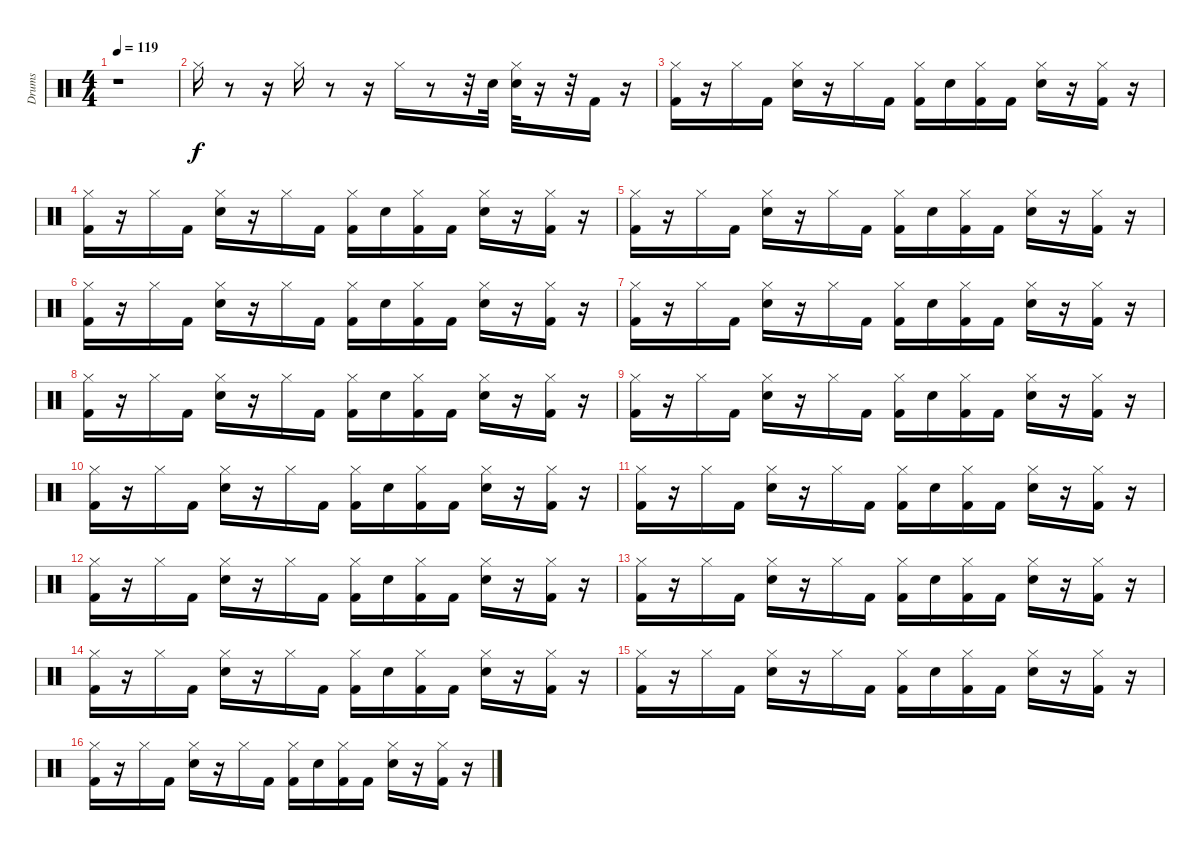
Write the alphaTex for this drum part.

\track ("Drums" "Drums") {instrument percussion}
\staff {score}
\articulation defaults
\ts (4 4)
\tempo 119
\clef neutral
\ks c
r.1{dy f} |
"Hi-Hat (closed)".16 r.8 r.16 "Hi-Hat (closed)".16 r.8 r.16 "Hi-Hat (closed)".16 r.8 r.32 "Snare (hit) 2".32 ("Snare (hit) 2" "Hi-Hat (closed)").32 r.16 r.32 "Kick (hit) 2".16 r.16 |
("Kick (hit) 2" "Hi-Hat (closed)").16 r.16 "Hi-Hat (closed)".16 "Kick (hit) 2".16 ("Snare (hit) 2" "Hi-Hat (closed)").16 r.16 "Hi-Hat (closed)".16 "Kick (hit) 2".16 ("Kick (hit) 2" "Hi-Hat (closed)").16 "Snare (hit) 2".16 ("Kick (hit) 2" "Hi-Hat (closed)").16 "Kick (hit) 2".16 ("Snare (hit) 2" "Hi-Hat (closed)").16 r.16 ("Kick (hit) 2" "Hi-Hat (closed)").16 r.16 |
("Kick (hit) 2" "Hi-Hat (closed)").16 r.16 "Hi-Hat (closed)".16 "Kick (hit) 2".16 ("Snare (hit) 2" "Hi-Hat (closed)").16 r.16 "Hi-Hat (closed)".16 "Kick (hit) 2".16 ("Kick (hit) 2" "Hi-Hat (closed)").16 "Snare (hit) 2".16 ("Kick (hit) 2" "Hi-Hat (closed)").16 "Kick (hit) 2".16 ("Snare (hit) 2" "Hi-Hat (closed)").16 r.16 ("Kick (hit) 2" "Hi-Hat (closed)").16 r.16 |
("Kick (hit) 2" "Hi-Hat (closed)").16 r.16 "Hi-Hat (closed)".16 "Kick (hit) 2".16 ("Snare (hit) 2" "Hi-Hat (closed)").16 r.16 "Hi-Hat (closed)".16 "Kick (hit) 2".16 ("Kick (hit) 2" "Hi-Hat (closed)").16 "Snare (hit) 2".16 ("Kick (hit) 2" "Hi-Hat (closed)").16 "Kick (hit) 2".16 ("Snare (hit) 2" "Hi-Hat (closed)").16 r.16 ("Kick (hit) 2" "Hi-Hat (closed)").16 r.16 |
("Kick (hit) 2" "Hi-Hat (closed)").16 r.16 "Hi-Hat (closed)".16 "Kick (hit) 2".16 ("Snare (hit) 2" "Hi-Hat (closed)").16 r.16 "Hi-Hat (closed)".16 "Kick (hit) 2".16 ("Kick (hit) 2" "Hi-Hat (closed)").16 "Snare (hit) 2".16 ("Kick (hit) 2" "Hi-Hat (closed)").16 "Kick (hit) 2".16 ("Snare (hit) 2" "Hi-Hat (closed)").16 r.16 ("Kick (hit) 2" "Hi-Hat (closed)").16 r.16 |
("Kick (hit) 2" "Hi-Hat (closed)").16 r.16 "Hi-Hat (closed)".16 "Kick (hit) 2".16 ("Snare (hit) 2" "Hi-Hat (closed)").16 r.16 "Hi-Hat (closed)".16 "Kick (hit) 2".16 ("Kick (hit) 2" "Hi-Hat (closed)").16 "Snare (hit) 2".16 ("Kick (hit) 2" "Hi-Hat (closed)").16 "Kick (hit) 2".16 ("Snare (hit) 2" "Hi-Hat (closed)").16 r.16 ("Kick (hit) 2" "Hi-Hat (closed)").16 r.16 |
("Kick (hit) 2" "Hi-Hat (closed)").16 r.16 "Hi-Hat (closed)".16 "Kick (hit) 2".16 ("Snare (hit) 2" "Hi-Hat (closed)").16 r.16 "Hi-Hat (closed)".16 "Kick (hit) 2".16 ("Kick (hit) 2" "Hi-Hat (closed)").16 "Snare (hit) 2".16 ("Kick (hit) 2" "Hi-Hat (closed)").16 "Kick (hit) 2".16 ("Snare (hit) 2" "Hi-Hat (closed)").16 r.16 ("Kick (hit) 2" "Hi-Hat (closed)").16 r.16 |
("Kick (hit) 2" "Hi-Hat (closed)").16 r.16 "Hi-Hat (closed)".16 "Kick (hit) 2".16 ("Snare (hit) 2" "Hi-Hat (closed)").16 r.16 "Hi-Hat (closed)".16 "Kick (hit) 2".16 ("Kick (hit) 2" "Hi-Hat (closed)").16 "Snare (hit) 2".16 ("Kick (hit) 2" "Hi-Hat (closed)").16 "Kick (hit) 2".16 ("Snare (hit) 2" "Hi-Hat (closed)").16 r.16 ("Kick (hit) 2" "Hi-Hat (closed)").16 r.16 |
("Kick (hit) 2" "Hi-Hat (closed)").16 r.16 "Hi-Hat (closed)".16 "Kick (hit) 2".16 ("Snare (hit) 2" "Hi-Hat (closed)").16 r.16 "Hi-Hat (closed)".16 "Kick (hit) 2".16 ("Kick (hit) 2" "Hi-Hat (closed)").16 "Snare (hit) 2".16 ("Kick (hit) 2" "Hi-Hat (closed)").16 "Kick (hit) 2".16 ("Snare (hit) 2" "Hi-Hat (closed)").16 r.16 ("Kick (hit) 2" "Hi-Hat (closed)").16 r.16 |
("Kick (hit) 2" "Hi-Hat (closed)").16 r.16 "Hi-Hat (closed)".16 "Kick (hit) 2".16 ("Snare (hit) 2" "Hi-Hat (closed)").16 r.16 "Hi-Hat (closed)".16 "Kick (hit) 2".16 ("Kick (hit) 2" "Hi-Hat (closed)").16 "Snare (hit) 2".16 ("Kick (hit) 2" "Hi-Hat (closed)").16 "Kick (hit) 2".16 ("Snare (hit) 2" "Hi-Hat (closed)").16 r.16 ("Kick (hit) 2" "Hi-Hat (closed)").16 r.16 |
("Kick (hit) 2" "Hi-Hat (closed)").16 r.16 "Hi-Hat (closed)".16 "Kick (hit) 2".16 ("Snare (hit) 2" "Hi-Hat (closed)").16 r.16 "Hi-Hat (closed)".16 "Kick (hit) 2".16 ("Kick (hit) 2" "Hi-Hat (closed)").16 "Snare (hit) 2".16 ("Kick (hit) 2" "Hi-Hat (closed)").16 "Kick (hit) 2".16 ("Snare (hit) 2" "Hi-Hat (closed)").16 r.16 ("Kick (hit) 2" "Hi-Hat (closed)").16 r.16 |
("Kick (hit) 2" "Hi-Hat (closed)").16 r.16 "Hi-Hat (closed)".16 "Kick (hit) 2".16 ("Snare (hit) 2" "Hi-Hat (closed)").16 r.16 "Hi-Hat (closed)".16 "Kick (hit) 2".16 ("Kick (hit) 2" "Hi-Hat (closed)").16 "Snare (hit) 2".16 ("Kick (hit) 2" "Hi-Hat (closed)").16 "Kick (hit) 2".16 ("Snare (hit) 2" "Hi-Hat (closed)").16 r.16 ("Kick (hit) 2" "Hi-Hat (closed)").16 r.16 |
("Kick (hit) 2" "Hi-Hat (closed)").16 r.16 "Hi-Hat (closed)".16 "Kick (hit) 2".16 ("Snare (hit) 2" "Hi-Hat (closed)").16 r.16 "Hi-Hat (closed)".16 "Kick (hit) 2".16 ("Kick (hit) 2" "Hi-Hat (closed)").16 "Snare (hit) 2".16 ("Kick (hit) 2" "Hi-Hat (closed)").16 "Kick (hit) 2".16 ("Snare (hit) 2" "Hi-Hat (closed)").16 r.16 ("Kick (hit) 2" "Hi-Hat (closed)").16 r.16 |
("Kick (hit) 2" "Hi-Hat (closed)").16 r.16 "Hi-Hat (closed)".16 "Kick (hit) 2".16 ("Snare (hit) 2" "Hi-Hat (closed)").16 r.16 "Hi-Hat (closed)".16 "Kick (hit) 2".16 ("Kick (hit) 2" "Hi-Hat (closed)").16 "Snare (hit) 2".16 ("Kick (hit) 2" "Hi-Hat (closed)").16 "Kick (hit) 2".16 ("Snare (hit) 2" "Hi-Hat (closed)").16 r.16 ("Kick (hit) 2" "Hi-Hat (closed)").16 r.16 |
("Kick (hit) 2" "Hi-Hat (closed)").16 r.16 "Hi-Hat (closed)".16 "Kick (hit) 2".16 ("Snare (hit) 2" "Hi-Hat (closed)").16 r.16 "Hi-Hat (closed)".16 "Kick (hit) 2".16 ("Kick (hit) 2" "Hi-Hat (closed)").16 "Snare (hit) 2".16 ("Kick (hit) 2" "Hi-Hat (closed)").16 "Kick (hit) 2".16 ("Snare (hit) 2" "Hi-Hat (closed)").16 r.16 ("Kick (hit) 2" "Hi-Hat (closed)").16 r.16
